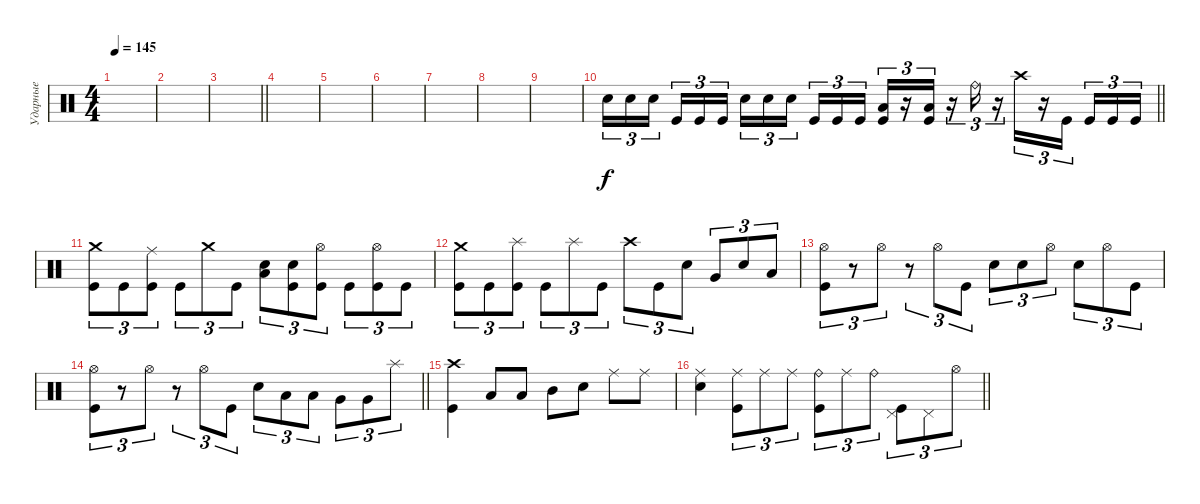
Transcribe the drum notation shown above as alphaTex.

\track ("Ударные" "Ударные") {instrument percussion}
\staff {score}
\articulation defaults
\ts (4 4)
\tempo 145
\clef neutral
\ks c
|
|
\barLineRight lightlight
|
\section ("" " ")
|
|
|
|
|
|
\barLineRight lightlight "Electric Snare (hit)".16{tu (3 2)} "Electric Snare (hit)".16{tu (3 2)} "Electric Snare (hit)".16{tu (3 2) beam splitsecondary} "Kick (hit)".16{tu (3 2)} "Kick (hit)".16{tu (3 2)} "Kick (hit)".16{tu (3 2)} "Electric Snare (hit)".16{tu (3 2)} "Electric Snare (hit)".16{tu (3 2)} "Electric Snare (hit)".16{tu (3 2) beam splitsecondary} "Kick (hit)".16{tu (3 2)} "Kick (hit)".16{tu (3 2)} "Kick (hit)".16{tu (3 2)}
("Low Floor Tom (hit)" "Kick (hit)").16{tu (3 2)} r.16{tu (3 2)} ("Low Floor Tom (hit)" "Kick (hit)").16{tu (3 2)} r.16{tu (3 2)} "Ride (bell)".16{tu (3 2)} r.16{tu (3 2)} "Crash high (hit)".16{tu (3 2)} r.16{tu (3 2)} "Kick (hit)".16{tu (3 2) beam splitsecondary} "Kick (hit)".16{tu (3 2)} "Kick (hit)".16{tu (3 2)} "Kick (hit)".16{tu (3 2)} |
\section ("" " ")
("Crash medium (hit)" "Kick (hit)").8{tu (3 2)} "Kick (hit)".8{tu (3 2)} ("Ride (middle)" "Kick (hit)").8{tu (3 2)} "Kick (hit)".8{tu (3 2)} "Crash medium (hit)".8{tu (3 2)} "Kick (hit)".8{tu (3 2)} ("Low Tom (hit)" "Electric Snare (hit)").8{tu (3 2)} ("Electric Snare (hit)" "Kick (hit)").8{tu (3 2)} ("Hi-Hat (open)" "Kick (hit)").8{tu (3 2)} "Kick (hit)".8{tu (3 2)} ("Hi-Hat (open)" "Kick (hit)").8{tu (3 2)} "Kick (hit)".8{tu (3 2)} |
("Crash medium (hit)" "Kick (hit)").8{tu (3 2)} "Kick (hit)".8{tu (3 2)} ("Splash (hit)" "Kick (hit)").8{tu (3 2)} "Kick (hit)".8{tu (3 2)} "Splash (hit)".8{tu (3 2)} "Kick (hit)".8{tu (3 2)} "Crash high (hit)".8{tu (3 2)} "Kick (hit)".8{tu (3 2)} "Electric Snare (hit)".8{tu (3 2)} "Very Low Tom (hit)".8{tu (3 2)} "Electric Snare (hit)".8{tu (3 2)} "Low Floor Tom (hit)".8{tu (3 2)} |
("Hi-Hat (open)" "Kick (hit)").8{tu (3 2)} r.8{tu (3 2)} "Hi-Hat (open)".8{tu (3 2)} r.8{tu (3 2)} "Hi-Hat (open)".8{tu (3 2)} "Kick (hit)".8{tu (3 2)} "Electric Snare (hit)".8{tu (3 2)} "Electric Snare (hit)".8{tu (3 2)} "Hi-Hat (open)".8{tu (3 2)} "Electric Snare (hit)".8{tu (3 2)} "Hi-Hat (open)".8{tu (3 2)} "Kick (hit)".8{tu (3 2)} |
\barLineRight lightlight
("Hi-Hat (open)" "Kick (hit)").8{tu (3 2)} r.8{tu (3 2)} "Hi-Hat (open)".8{tu (3 2)} r.8{tu (3 2)} "Hi-Hat (open)".8{tu (3 2)} "Kick (hit)".8{tu (3 2)} "Electric Snare (hit)".8{tu (3 2)} "Low Tom (hit)".8{tu (3 2)} "Low Tom (hit)".8{tu (3 2)} "Very Low Tom (hit)".8{tu (3 2)} "Very Low Tom (hit)".8{tu (3 2)} "Splash (hit)".8{tu (3 2)} |
("Crash high (hit)" "Kick (hit)").4 "Low Tom (hit)".8 "Low Tom (hit)".8 "Mid Tom (hit)".8 "Electric Snare (hit)".8 "Ride (middle)".8 "Ride (middle)".8 |
\barLineRight lightlight
("Ride (middle)" "Electric Snare (hit)").4 ("Ride (middle)" "Kick (hit)").8{tu (3 2)} "Ride (middle)".8{tu (3 2)} "Ride (middle)".8{tu (3 2)} ("Ride (bell)" "Kick (hit)").8{tu (3 2)} "Ride (middle)".8{tu (3 2)} "Ride (bell)".8{tu (3 2)} ("Pedal Hi-Hat (hit)" "Kick (hit)").8{tu (3 2)} "Pedal Hi-Hat (hit)".8{tu (3 2)} "Hi-Hat (open)".8{tu (3 2)}
